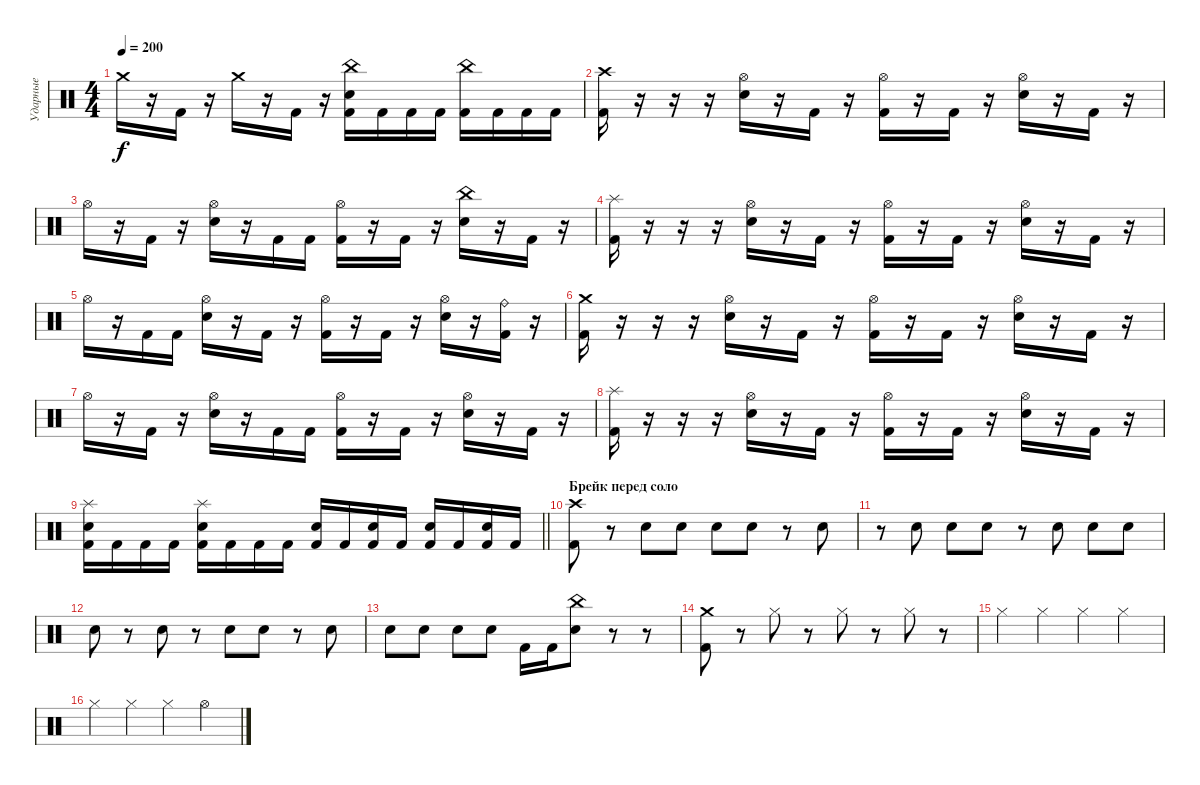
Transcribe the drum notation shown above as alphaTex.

\track ("Ударные" "Ударные") {instrument percussion}
\staff {score}
\articulation defaults
\ts (4 4)
\tempo 200
\clef neutral
\ks c "Crash medium (hit)".16{dy f}
r.16 "Kick (hit) 2".16 r.16 "Crash medium (hit)".16 r.16 "Kick (hit) 2".16 r.16 ("Kick (hit) 2" "Electric Snare (hit)" "China (hit)").16 "Kick (hit) 2".16 "Kick (hit) 2".16 "Kick (hit) 2".16 ("Kick (hit) 2" "China (hit)").16 "Kick (hit) 2".16 "Kick (hit) 2".16 "Kick (hit) 2".16 |
("Kick (hit) 2" "Crash high (hit)").16 r.16 r.16 r.16 ("Electric Snare (hit)" "Hi-Hat (open)").16 r.16 "Kick (hit) 2".16 r.16 ("Kick (hit) 2" "Hi-Hat (open)").16 r.16 "Kick (hit) 2".16 r.16 ("Electric Snare (hit)" "Hi-Hat (open)").16 r.16 "Kick (hit) 2".16 r.16 |
"Hi-Hat (open)".16 r.16 "Kick (hit) 2".16 r.16 ("Electric Snare (hit)" "Hi-Hat (open)").16 r.16 "Kick (hit) 2".16 "Kick (hit) 2".16 ("Kick (hit) 2" "Hi-Hat (open)").16 r.16 "Kick (hit) 2".16 r.16 ("Electric Snare (hit)" "China (hit)").16 r.16 "Kick (hit) 2".16 r.16 |
("Kick (hit) 2" "Splash (hit)").16 r.16 r.16 r.16 ("Electric Snare (hit)" "Hi-Hat (open)").16 r.16 "Kick (hit) 2".16 r.16 ("Kick (hit) 2" "Hi-Hat (open)").16 r.16 "Kick (hit) 2".16 r.16 ("Electric Snare (hit)" "Hi-Hat (open)").16 r.16 "Kick (hit) 2".16 r.16 |
"Hi-Hat (open)".16 r.16 "Kick (hit) 2".16 "Kick (hit) 2".16 ("Electric Snare (hit)" "Hi-Hat (open)").16 r.16 "Kick (hit) 2".16 r.16 ("Kick (hit) 2" "Hi-Hat (open)").16 r.16 "Kick (hit) 2".16 r.16 ("Electric Snare (hit)" "Hi-Hat (open)").16 r.16 ("Kick (hit) 2" "Ride (bell)").16 r.16 |
("Kick (hit) 2" "Crash medium (hit)").16 r.16 r.16 r.16 ("Electric Snare (hit)" "Hi-Hat (open)").16 r.16 "Kick (hit) 2".16 r.16 ("Kick (hit) 2" "Hi-Hat (open)").16 r.16 "Kick (hit) 2".16 r.16 ("Electric Snare (hit)" "Hi-Hat (open)").16 r.16 "Kick (hit) 2".16 r.16 |
"Hi-Hat (open)".16 r.16 "Kick (hit) 2".16 r.16 ("Electric Snare (hit)" "Hi-Hat (open)").16 r.16 "Kick (hit) 2".16 "Kick (hit) 2".16 ("Kick (hit) 2" "Hi-Hat (open)").16 r.16 "Kick (hit) 2".16 r.16 ("Electric Snare (hit)" "Hi-Hat (open)").16 r.16 "Kick (hit) 2".16 r.16 |
("Kick (hit) 2" "Splash (hit)").16 r.16 r.16 r.16 ("Electric Snare (hit)" "Hi-Hat (open)").16 r.16 "Kick (hit) 2".16 r.16 ("Kick (hit) 2" "Hi-Hat (open)").16 r.16 "Kick (hit) 2".16 r.16 ("Electric Snare (hit)" "Hi-Hat (open)").16 r.16 "Kick (hit) 2".16 r.16 |
\barLineRight lightlight
("Kick (hit) 2" "Electric Snare (hit)" "Splash (hit)").16 "Kick (hit) 2".16 "Kick (hit) 2".16 "Kick (hit) 2".16 ("Kick (hit) 2" "Electric Snare (hit)" "Splash (hit)").16 "Kick (hit) 2".16 "Kick (hit) 2".16 "Kick (hit) 2".16 ("Kick (hit) 2" "Electric Snare (hit)").16 "Kick (hit) 2".16 ("Kick (hit) 2" "Electric Snare (hit)").16 "Kick (hit) 2".16 ("Kick (hit) 2" "Electric Snare (hit)").16 "Kick (hit) 2".16 ("Kick (hit) 2" "Electric Snare (hit)").16 "Kick (hit) 2".16 |
\section ("" "Брейк перед соло")
("Kick (hit) 2" "Crash high (hit)").8 r.8 "Electric Snare (hit)".8 "Electric Snare (hit)".8 "Electric Snare (hit)".8 "Electric Snare (hit)".8 r.8 "Electric Snare (hit)".8 |
r.8 "Electric Snare (hit)".8 "Electric Snare (hit)".8 "Electric Snare (hit)".8 r.8 "Electric Snare (hit)".8 "Electric Snare (hit)".8 "Electric Snare (hit)".8 |
"Electric Snare (hit)".8 r.8 "Electric Snare (hit)".8 r.8 "Electric Snare (hit)".8 "Electric Snare (hit)".8 r.8 "Electric Snare (hit)".8 |
"Electric Snare (hit)".8 "Electric Snare (hit)".8 "Electric Snare (hit)".8 "Electric Snare (hit)".8 "Kick (hit) 2".16 "Kick (hit) 2".16 ("Electric Snare (hit)" "China (hit)").8 r.8 r.8 |
("Kick (hit) 2" "Crash medium (hit)").8 r.8 "Hi-Hat (closed)".8 r.8 "Hi-Hat (closed)".8 r.8 "Hi-Hat (closed)".8 r.8 |
"Hi-Hat (closed)".4 "Hi-Hat (closed)".4 "Hi-Hat (closed)".4 "Hi-Hat (closed)".4 |
"Hi-Hat (closed)".4 "Hi-Hat (closed)".4 "Hi-Hat (closed)".4 "Hi-Hat (open)".4
